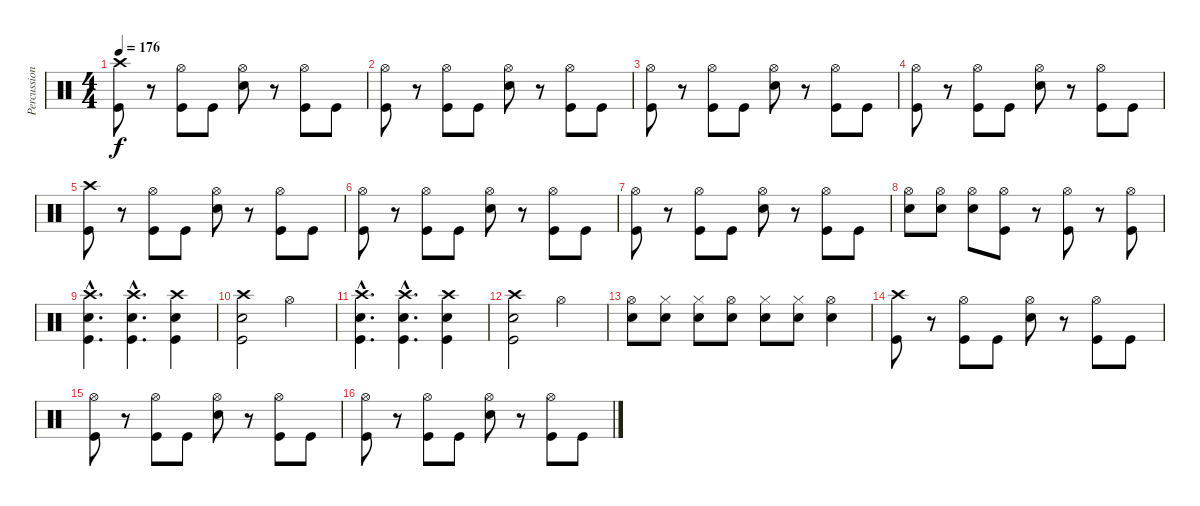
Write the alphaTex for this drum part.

\track ("Percussion" "Percussion") {instrument percussion}
\staff {score}
\articulation defaults
\ts (4 4)
\tempo 176
\clef neutral
\ks c
("Crash high (hit)" "Kick (hit)").8{dy f} r.8 ("Hi-Hat (open)" "Kick (hit)").8 "Kick (hit)".8 ("Hi-Hat (open)" "Snare (hit) 2").8 r.8 ("Hi-Hat (open)" "Kick (hit)").8 "Kick (hit)".8 |
("Hi-Hat (open)" "Kick (hit)").8 r.8 ("Hi-Hat (open)" "Kick (hit)").8 "Kick (hit)".8 ("Hi-Hat (open)" "Snare (hit) 2").8 r.8 ("Hi-Hat (open)" "Kick (hit)").8 "Kick (hit)".8 |
("Hi-Hat (open)" "Kick (hit)").8 r.8 ("Hi-Hat (open)" "Kick (hit)").8 "Kick (hit)".8 ("Hi-Hat (open)" "Snare (hit) 2").8 r.8 ("Hi-Hat (open)" "Kick (hit)").8 "Kick (hit)".8 |
("Hi-Hat (open)" "Kick (hit)").8 r.8 ("Hi-Hat (open)" "Kick (hit)").8 "Kick (hit)".8 ("Hi-Hat (open)" "Snare (hit) 2").8 r.8 ("Hi-Hat (open)" "Kick (hit)").8 "Kick (hit)".8 |
("Crash high (hit)" "Kick (hit)").8 r.8 ("Hi-Hat (open)" "Kick (hit)").8 "Kick (hit)".8 ("Hi-Hat (open)" "Snare (hit) 2").8 r.8 ("Hi-Hat (open)" "Kick (hit)").8 "Kick (hit)".8 |
("Hi-Hat (open)" "Kick (hit)").8 r.8 ("Hi-Hat (open)" "Kick (hit)").8 "Kick (hit)".8 ("Hi-Hat (open)" "Snare (hit) 2").8 r.8 ("Hi-Hat (open)" "Kick (hit)").8 "Kick (hit)".8 |
("Hi-Hat (open)" "Kick (hit)").8 r.8 ("Hi-Hat (open)" "Kick (hit)").8 "Kick (hit)".8 ("Hi-Hat (open)" "Snare (hit) 2").8 r.8 ("Hi-Hat (open)" "Kick (hit)").8 "Kick (hit)".8 |
("Hi-Hat (open)" "Snare (hit) 2").8 ("Hi-Hat (open)" "Snare (hit) 2").8 ("Hi-Hat (open)" "Snare (hit) 2").8 ("Hi-Hat (open)" "Kick (hit)").8 r.8 ("Hi-Hat (open)" "Kick (hit)").8 r.8 ("Hi-Hat (open)" "Kick (hit)").8 |
("Crash high (hit)"{hac} "Kick (hit)"{hac} "Snare (hit) 2"{hac}).4{d} ("Crash high (hit)"{hac} "Kick (hit)"{hac} "Snare (hit) 2"{hac}).4{d} ("Crash high (hit)" "Kick (hit)" "Snare (hit) 2").4 |
("Crash high (hit)" "Kick (hit)" "Snare (hit) 2").2 "Hi-Hat (open)".2 |
("Crash high (hit)"{hac} "Kick (hit)"{hac} "Snare (hit) 2"{hac}).4{d} ("Crash high (hit)"{hac} "Kick (hit)"{hac} "Snare (hit) 2"{hac}).4{d} ("Crash high (hit)" "Kick (hit)" "Snare (hit) 2").4 |
("Crash high (hit)" "Kick (hit)" "Snare (hit) 2").2 "Hi-Hat (open)".2 |
("Hi-Hat (open)" "Snare (hit) 2").8 ("Hi-Hat (closed)" "Snare (hit) 2").8 ("Hi-Hat (closed)" "Snare (hit) 2").8 ("Hi-Hat (open)" "Snare (hit) 2").8 ("Hi-Hat (closed)" "Snare (hit) 2").8 ("Hi-Hat (closed)" "Snare (hit) 2").8 ("Hi-Hat (open)" "Snare (hit) 2").4 |
("Crash high (hit)" "Kick (hit)").8 r.8 ("Hi-Hat (open)" "Kick (hit)").8 "Kick (hit)".8 ("Hi-Hat (open)" "Snare (hit) 2").8 r.8 ("Hi-Hat (open)" "Kick (hit)").8 "Kick (hit)".8 |
("Hi-Hat (open)" "Kick (hit)").8 r.8 ("Hi-Hat (open)" "Kick (hit)").8 "Kick (hit)".8 ("Hi-Hat (open)" "Snare (hit) 2").8 r.8 ("Hi-Hat (open)" "Kick (hit)").8 "Kick (hit)".8 |
("Hi-Hat (open)" "Kick (hit)").8 r.8 ("Hi-Hat (open)" "Kick (hit)").8 "Kick (hit)".8 ("Hi-Hat (open)" "Snare (hit) 2").8 r.8 ("Hi-Hat (open)" "Kick (hit)").8 "Kick (hit)".8
